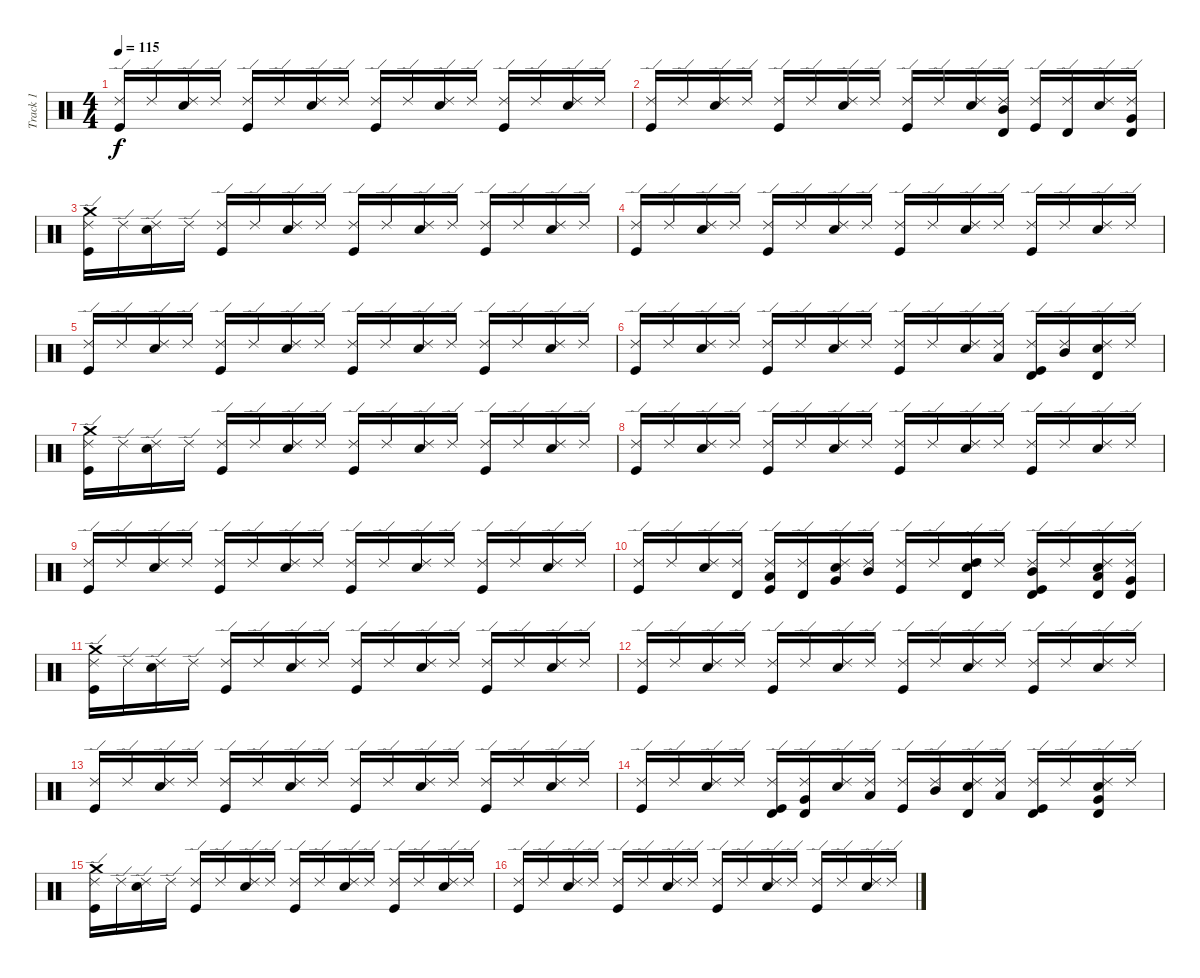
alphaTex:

\track ("Track 1" "Track 1") {instrument percussion}
\staff {score}
\articulation defaults
\ts (4 4)
\tempo 115
\clef neutral
\ks c
("Kick (hit)" "Ride (edge) 2").16{dy f} "Ride (edge) 2".16 ("Electric Snare (hit)" "Ride (edge) 2").16 "Ride (edge) 2".16 ("Kick (hit)" "Ride (edge) 2").16 "Ride (edge) 2".16 ("Electric Snare (hit)" "Ride (edge) 2").16 "Ride (edge) 2".16 ("Kick (hit)" "Ride (edge) 2").16 "Ride (edge) 2".16 ("Electric Snare (hit)" "Ride (edge) 2").16 "Ride (edge) 2".16 ("Kick (hit)" "Ride (edge) 2").16 "Ride (edge) 2".16 ("Electric Snare (hit)" "Ride (edge) 2").16 "Ride (edge) 2".16 |
("Kick (hit)" "Ride (edge) 2").16 "Ride (edge) 2".16 ("Electric Snare (hit)" "Ride (edge) 2").16 "Ride (edge) 2".16 ("Kick (hit)" "Ride (edge) 2").16 "Ride (edge) 2".16 ("Electric Snare (hit)" "Ride (edge) 2").16 "Ride (edge) 2".16 ("Kick (hit)" "Ride (edge) 2").16 "Ride (edge) 2".16 ("Electric Snare (hit)" "Ride (edge) 2").16 ("Mid Tom (hit)" "Ride (edge) 2" "Timbale high (hit)").16 ("Kick (hit)" "Ride (edge) 2").16 ("Ride (edge) 2" "Timbale high (hit)").16 ("Electric Snare (hit)" "Ride (edge) 2").16 ("Very Low Tom (hit)" "Ride (edge) 2" "Timbale high (hit)").16 |
("Kick (hit)" "Crash medium (hit)" "Ride (edge) 2").16 "Ride (edge) 2".16 ("Electric Snare (hit)" "Ride (edge) 2").16 "Ride (edge) 2".16 ("Kick (hit)" "Ride (edge) 2").16 "Ride (edge) 2".16 ("Electric Snare (hit)" "Ride (edge) 2").16 "Ride (edge) 2".16 ("Kick (hit)" "Ride (edge) 2").16 "Ride (edge) 2".16 ("Electric Snare (hit)" "Ride (edge) 2").16 "Ride (edge) 2".16 ("Kick (hit)" "Ride (edge) 2").16 "Ride (edge) 2".16 ("Electric Snare (hit)" "Ride (edge) 2").16 "Ride (edge) 2".16 |
("Kick (hit)" "Ride (edge) 2").16 "Ride (edge) 2".16 ("Electric Snare (hit)" "Ride (edge) 2").16 "Ride (edge) 2".16 ("Kick (hit)" "Ride (edge) 2").16 "Ride (edge) 2".16 ("Electric Snare (hit)" "Ride (edge) 2").16 "Ride (edge) 2".16 ("Kick (hit)" "Ride (edge) 2").16 "Ride (edge) 2".16 ("Electric Snare (hit)" "Ride (edge) 2").16 "Ride (edge) 2".16 ("Kick (hit)" "Ride (edge) 2").16 "Ride (edge) 2".16 ("Electric Snare (hit)" "Ride (edge) 2").16 "Ride (edge) 2".16 |
("Kick (hit)" "Ride (edge) 2").16 "Ride (edge) 2".16 ("Electric Snare (hit)" "Ride (edge) 2").16 "Ride (edge) 2".16 ("Kick (hit)" "Ride (edge) 2").16 "Ride (edge) 2".16 ("Electric Snare (hit)" "Ride (edge) 2").16 "Ride (edge) 2".16 ("Kick (hit)" "Ride (edge) 2").16 "Ride (edge) 2".16 ("Electric Snare (hit)" "Ride (edge) 2").16 "Ride (edge) 2".16 ("Kick (hit)" "Ride (edge) 2").16 "Ride (edge) 2".16 ("Electric Snare (hit)" "Ride (edge) 2").16 "Ride (edge) 2".16 |
("Kick (hit)" "Ride (edge) 2").16 "Ride (edge) 2".16 ("Electric Snare (hit)" "Ride (edge) 2").16 "Ride (edge) 2".16 ("Kick (hit)" "Ride (edge) 2").16 "Ride (edge) 2".16 ("Electric Snare (hit)" "Ride (edge) 2").16 "Ride (edge) 2".16 ("Kick (hit)" "Ride (edge) 2").16 "Ride (edge) 2".16 ("Electric Snare (hit)" "Ride (edge) 2").16 ("Low Tom (hit)" "Ride (edge) 2").16 ("Kick (hit)" "Ride (edge) 2" "Timbale high (hit)").16 ("Mid Tom (hit)" "Ride (edge) 2").16 ("Electric Snare (hit)" "Ride (edge) 2" "Timbale high (hit)").16 "Ride (edge) 2".16 |
("Kick (hit)" "Crash medium (hit)" "Ride (edge) 2").16 "Ride (edge) 2".16 ("Electric Snare (hit)" "Ride (edge) 2").16 "Ride (edge) 2".16 ("Kick (hit)" "Ride (edge) 2").16 "Ride (edge) 2".16 ("Electric Snare (hit)" "Ride (edge) 2").16 "Ride (edge) 2".16 ("Kick (hit)" "Ride (edge) 2").16 "Ride (edge) 2".16 ("Electric Snare (hit)" "Ride (edge) 2").16 "Ride (edge) 2".16 ("Kick (hit)" "Ride (edge) 2").16 "Ride (edge) 2".16 ("Electric Snare (hit)" "Ride (edge) 2").16 "Ride (edge) 2".16 |
("Kick (hit)" "Ride (edge) 2").16 "Ride (edge) 2".16 ("Electric Snare (hit)" "Ride (edge) 2").16 "Ride (edge) 2".16 ("Kick (hit)" "Ride (edge) 2").16 "Ride (edge) 2".16 ("Electric Snare (hit)" "Ride (edge) 2").16 "Ride (edge) 2".16 ("Kick (hit)" "Ride (edge) 2").16 "Ride (edge) 2".16 ("Electric Snare (hit)" "Ride (edge) 2").16 "Ride (edge) 2".16 ("Kick (hit)" "Ride (edge) 2").16 "Ride (edge) 2".16 ("Electric Snare (hit)" "Ride (edge) 2").16 "Ride (edge) 2".16 |
("Kick (hit)" "Ride (edge) 2").16 "Ride (edge) 2".16 ("Electric Snare (hit)" "Ride (edge) 2").16 "Ride (edge) 2".16 ("Kick (hit)" "Ride (edge) 2").16 "Ride (edge) 2".16 ("Electric Snare (hit)" "Ride (edge) 2").16 "Ride (edge) 2".16 ("Kick (hit)" "Ride (edge) 2").16 "Ride (edge) 2".16 ("Electric Snare (hit)" "Ride (edge) 2").16 "Ride (edge) 2".16 ("Kick (hit)" "Ride (edge) 2").16 "Ride (edge) 2".16 ("Electric Snare (hit)" "Ride (edge) 2").16 "Ride (edge) 2".16 |
("Kick (hit)" "Ride (edge) 2").16 "Ride (edge) 2".16 ("Electric Snare (hit)" "Ride (edge) 2").16 ("Ride (edge) 2" "Timbale high (hit)").16 ("Kick (hit)" "Low Tom (hit)" "Ride (edge) 2").16 ("Ride (edge) 2" "Timbale high (hit)").16 ("Electric Snare (hit)" "Very Low Tom (hit)" "Ride (edge) 2").16 ("Mid Tom (hit)" "Ride (edge) 2").16 ("Kick (hit)" "Ride (edge) 2").16 "Ride (edge) 2".16 ("Electric Snare (hit)" "High Tom (hit)" "Ride (edge) 2" "Timbale high (hit)").16 "Ride (edge) 2".16 ("Kick (hit)" "Mid Tom (hit)" "Ride (edge) 2" "Timbale high (hit)").16 "Ride (edge) 2".16 ("Electric Snare (hit)" "Low Tom (hit)" "Ride (edge) 2" "Timbale high (hit)").16 ("Very Low Tom (hit)" "Ride (edge) 2" "Timbale high (hit)").16 |
("Kick (hit)" "Crash medium (hit)" "Ride (edge) 2").16 "Ride (edge) 2".16 ("Electric Snare (hit)" "Ride (edge) 2").16 "Ride (edge) 2".16 ("Kick (hit)" "Ride (edge) 2").16 "Ride (edge) 2".16 ("Electric Snare (hit)" "Ride (edge) 2").16 "Ride (edge) 2".16 ("Kick (hit)" "Ride (edge) 2").16 "Ride (edge) 2".16 ("Electric Snare (hit)" "Ride (edge) 2").16 "Ride (edge) 2".16 ("Kick (hit)" "Ride (edge) 2").16 "Ride (edge) 2".16 ("Electric Snare (hit)" "Ride (edge) 2").16 "Ride (edge) 2".16 |
("Kick (hit)" "Ride (edge) 2").16 "Ride (edge) 2".16 ("Electric Snare (hit)" "Ride (edge) 2").16 "Ride (edge) 2".16 ("Kick (hit)" "Ride (edge) 2").16 "Ride (edge) 2".16 ("Electric Snare (hit)" "Ride (edge) 2").16 "Ride (edge) 2".16 ("Kick (hit)" "Ride (edge) 2").16 "Ride (edge) 2".16 ("Electric Snare (hit)" "Ride (edge) 2").16 "Ride (edge) 2".16 ("Kick (hit)" "Ride (edge) 2").16 "Ride (edge) 2".16 ("Electric Snare (hit)" "Ride (edge) 2").16 "Ride (edge) 2".16 |
("Kick (hit)" "Ride (edge) 2").16 "Ride (edge) 2".16 ("Electric Snare (hit)" "Ride (edge) 2").16 "Ride (edge) 2".16 ("Kick (hit)" "Ride (edge) 2").16 "Ride (edge) 2".16 ("Electric Snare (hit)" "Ride (edge) 2").16 "Ride (edge) 2".16 ("Kick (hit)" "Ride (edge) 2").16 "Ride (edge) 2".16 ("Electric Snare (hit)" "Ride (edge) 2").16 "Ride (edge) 2".16 ("Kick (hit)" "Ride (edge) 2").16 "Ride (edge) 2".16 ("Electric Snare (hit)" "Ride (edge) 2").16 "Ride (edge) 2".16 |
("Kick (hit)" "Ride (edge) 2").16 "Ride (edge) 2".16 ("Electric Snare (hit)" "Ride (edge) 2").16 "Ride (edge) 2".16 ("Kick (hit)" "Ride (edge) 2" "Timbale high (hit)").16 ("Very Low Tom (hit)" "Ride (edge) 2" "Timbale high (hit)").16 ("Electric Snare (hit)" "Ride (edge) 2").16 ("Low Tom (hit)" "Ride (edge) 2").16 ("Kick (hit)" "Ride (edge) 2").16 ("Mid Tom (hit)" "Ride (edge) 2").16 ("Electric Snare (hit)" "Ride (edge) 2" "Timbale high (hit)").16 ("Low Tom (hit)" "Ride (edge) 2").16 ("Kick (hit)" "Ride (edge) 2" "Timbale high (hit)").16 "Ride (edge) 2".16 ("Electric Snare (hit)" "Very Low Tom (hit)" "Ride (edge) 2" "Timbale high (hit)").16 "Ride (edge) 2".16 |
("Kick (hit)" "Crash medium (hit)" "Ride (edge) 2").16 "Ride (edge) 2".16 ("Electric Snare (hit)" "Ride (edge) 2").16 "Ride (edge) 2".16 ("Kick (hit)" "Ride (edge) 2").16 "Ride (edge) 2".16 ("Electric Snare (hit)" "Ride (edge) 2").16 "Ride (edge) 2".16 ("Kick (hit)" "Ride (edge) 2").16 "Ride (edge) 2".16 ("Electric Snare (hit)" "Ride (edge) 2").16 "Ride (edge) 2".16 ("Kick (hit)" "Ride (edge) 2").16 "Ride (edge) 2".16 ("Electric Snare (hit)" "Ride (edge) 2").16 "Ride (edge) 2".16 |
("Kick (hit)" "Ride (edge) 2").16 "Ride (edge) 2".16 ("Electric Snare (hit)" "Ride (edge) 2").16 "Ride (edge) 2".16 ("Kick (hit)" "Ride (edge) 2").16 "Ride (edge) 2".16 ("Electric Snare (hit)" "Ride (edge) 2").16 "Ride (edge) 2".16 ("Kick (hit)" "Ride (edge) 2").16 "Ride (edge) 2".16 ("Electric Snare (hit)" "Ride (edge) 2").16 "Ride (edge) 2".16 ("Kick (hit)" "Ride (edge) 2").16 "Ride (edge) 2".16 ("Electric Snare (hit)" "Ride (edge) 2").16 "Ride (edge) 2".16
